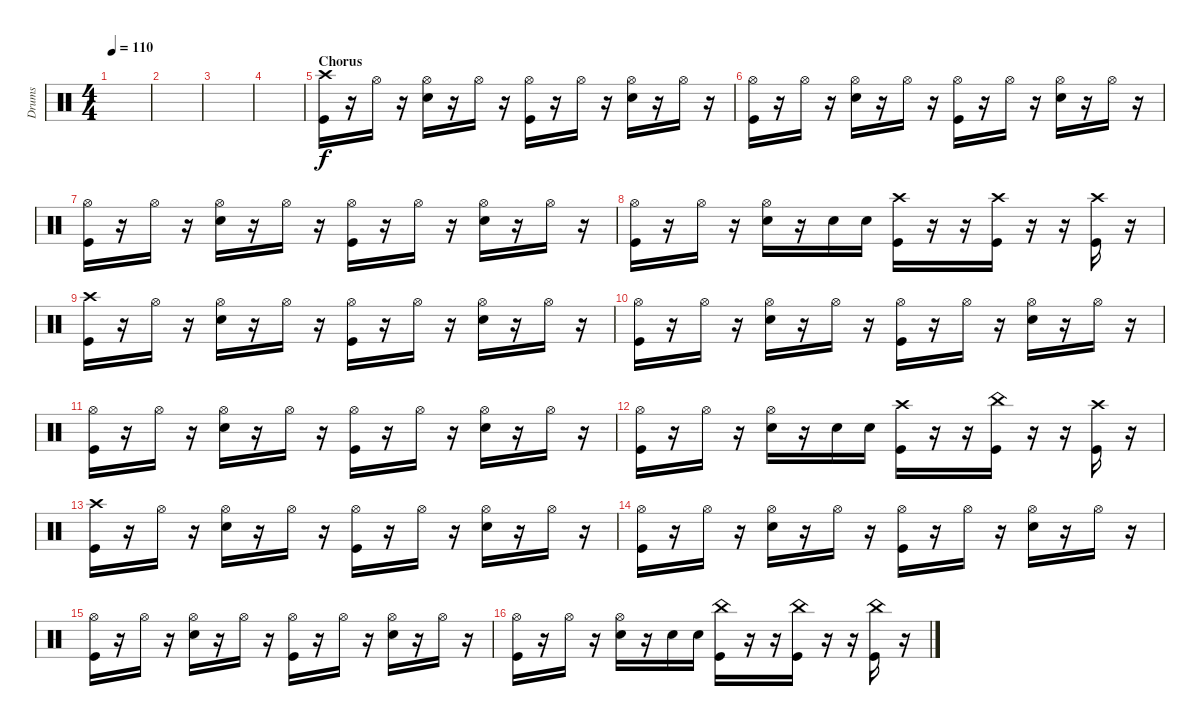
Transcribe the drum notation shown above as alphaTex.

\track ("Drums" "Drums") {instrument percussion}
\staff {score}
\articulation defaults
\ts (4 4)
\tempo 110
\clef neutral
\ks c
|
|
|
|
\section ("" "Chorus")
("Crash high (hit)" "Kick (hit)").16 r.16 "Hi-Hat (open)".16 r.16 ("Hi-Hat (open)" "Snare (hit) 2").16 r.16 "Hi-Hat (open)".16 r.16 ("Hi-Hat (open)" "Kick (hit)").16 r.16 "Hi-Hat (open)".16 r.16 ("Hi-Hat (open)" "Snare (hit) 2").16 r.16 "Hi-Hat (open)".16 r.16 |
("Hi-Hat (open)" "Kick (hit)").16 r.16 "Hi-Hat (open)".16 r.16 ("Hi-Hat (open)" "Snare (hit) 2").16 r.16 "Hi-Hat (open)".16 r.16 ("Hi-Hat (open)" "Kick (hit)").16 r.16 "Hi-Hat (open)".16 r.16 ("Hi-Hat (open)" "Snare (hit) 2").16 r.16 "Hi-Hat (open)".16 r.16 |
("Hi-Hat (open)" "Kick (hit)").16 r.16 "Hi-Hat (open)".16 r.16 ("Hi-Hat (open)" "Snare (hit) 2").16 r.16 "Hi-Hat (open)".16 r.16 ("Hi-Hat (open)" "Kick (hit)").16 r.16 "Hi-Hat (open)".16 r.16 ("Hi-Hat (open)" "Snare (hit) 2").16 r.16 "Hi-Hat (open)".16 r.16 |
("Hi-Hat (open)" "Kick (hit)").16 r.16 "Hi-Hat (open)".16 r.16 ("Hi-Hat (open)" "Snare (hit) 2").16 r.16 "Snare (hit) 2".16 "Snare (hit) 2".16 ("Crash high (hit)" "Kick (hit)").16 r.16 r.16 ("Crash high (hit)" "Kick (hit)").16 r.16 r.16 ("Crash high (hit)" "Kick (hit)").16 r.16 |
("Crash high (hit)" "Kick (hit)").16 r.16 "Hi-Hat (open)".16 r.16 ("Hi-Hat (open)" "Snare (hit) 2").16 r.16 "Hi-Hat (open)".16 r.16 ("Hi-Hat (open)" "Kick (hit)").16 r.16 "Hi-Hat (open)".16 r.16 ("Hi-Hat (open)" "Snare (hit) 2").16 r.16 "Hi-Hat (open)".16 r.16 |
("Hi-Hat (open)" "Kick (hit)").16 r.16 "Hi-Hat (open)".16 r.16 ("Hi-Hat (open)" "Snare (hit) 2").16 r.16 "Hi-Hat (open)".16 r.16 ("Hi-Hat (open)" "Kick (hit)").16 r.16 "Hi-Hat (open)".16 r.16 ("Hi-Hat (open)" "Snare (hit) 2").16 r.16 "Hi-Hat (open)".16 r.16 |
("Hi-Hat (open)" "Kick (hit)").16 r.16 "Hi-Hat (open)".16 r.16 ("Hi-Hat (open)" "Snare (hit) 2").16 r.16 "Hi-Hat (open)".16 r.16 ("Hi-Hat (open)" "Kick (hit)").16 r.16 "Hi-Hat (open)".16 r.16 ("Hi-Hat (open)" "Snare (hit) 2").16 r.16 "Hi-Hat (open)".16 r.16 |
("Hi-Hat (open)" "Kick (hit)").16 r.16 "Hi-Hat (open)".16 r.16 ("Hi-Hat (open)" "Snare (hit) 2").16 r.16 "Snare (hit) 2".16 "Snare (hit) 2".16 ("Crash high (hit)" "Kick (hit)").16 r.16 r.16 ("China (hit)" "Kick (hit)").16 r.16 r.16 ("Crash high (hit)" "Kick (hit)").16 r.16 |
("Crash high (hit)" "Kick (hit)").16 r.16 "Hi-Hat (open)".16 r.16 ("Hi-Hat (open)" "Snare (hit) 2").16 r.16 "Hi-Hat (open)".16 r.16 ("Hi-Hat (open)" "Kick (hit)").16 r.16 "Hi-Hat (open)".16 r.16 ("Hi-Hat (open)" "Snare (hit) 2").16 r.16 "Hi-Hat (open)".16 r.16 |
("Hi-Hat (open)" "Kick (hit)").16 r.16 "Hi-Hat (open)".16 r.16 ("Hi-Hat (open)" "Snare (hit) 2").16 r.16 "Hi-Hat (open)".16 r.16 ("Hi-Hat (open)" "Kick (hit)").16 r.16 "Hi-Hat (open)".16 r.16 ("Hi-Hat (open)" "Snare (hit) 2").16 r.16 "Hi-Hat (open)".16 r.16 |
("Hi-Hat (open)" "Kick (hit)").16 r.16 "Hi-Hat (open)".16 r.16 ("Hi-Hat (open)" "Snare (hit) 2").16 r.16 "Hi-Hat (open)".16 r.16 ("Hi-Hat (open)" "Kick (hit)").16 r.16 "Hi-Hat (open)".16 r.16 ("Hi-Hat (open)" "Snare (hit) 2").16 r.16 "Hi-Hat (open)".16 r.16 |
("Hi-Hat (open)" "Kick (hit)").16 r.16 "Hi-Hat (open)".16 r.16 ("Hi-Hat (open)" "Snare (hit) 2").16 r.16 "Snare (hit) 2".16 "Snare (hit) 2".16 ("China (hit)" "Kick (hit)").16 r.16 r.16 ("China (hit)" "Kick (hit)").16 r.16 r.16 ("China (hit)" "Kick (hit)").16 r.16
